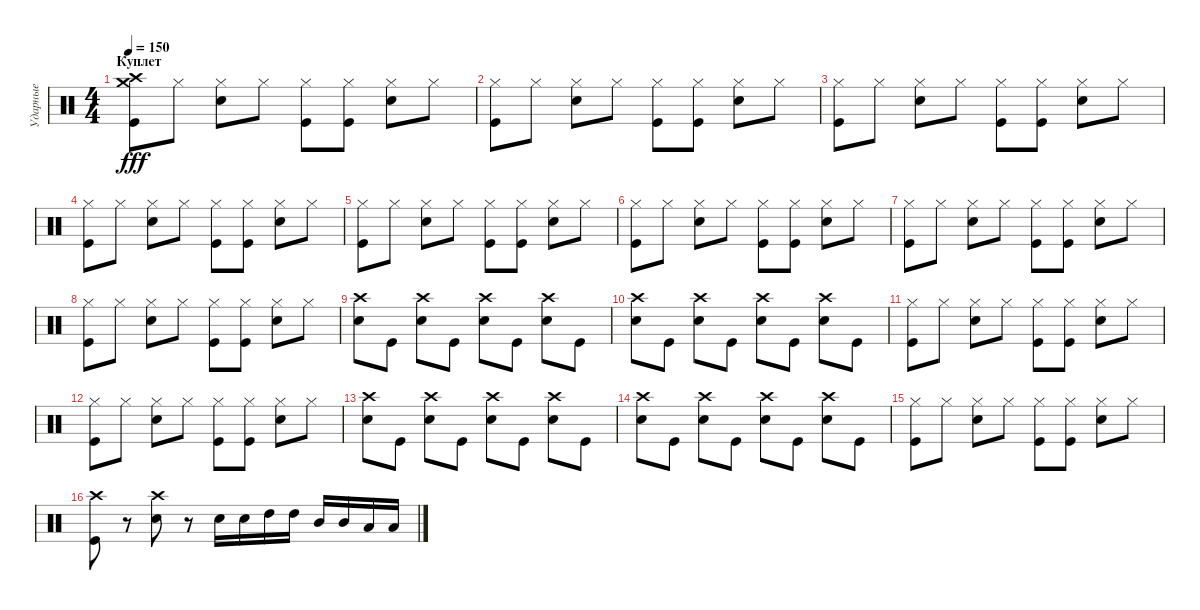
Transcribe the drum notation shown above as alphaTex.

\track ("Ударные" "Ударные") {instrument percussion}
\staff {score}
\articulation defaults
\ts (4 4)
\section ("" "Куплет")
\tempo 150
\clef neutral
\ks c
("Crash medium (hit)" "Crash high (hit)" "Kick (hit)").8{dy fff} "Hi-Hat (closed)".8 ("Hi-Hat (closed)" "Electric Snare (hit)").8 "Hi-Hat (closed)".8 ("Hi-Hat (closed)" "Kick (hit)").8 ("Hi-Hat (closed)" "Kick (hit)").8 ("Hi-Hat (closed)" "Electric Snare (hit)").8 "Hi-Hat (closed)".8 |
("Hi-Hat (closed)" "Kick (hit)").8 "Hi-Hat (closed)".8 ("Hi-Hat (closed)" "Electric Snare (hit)").8 "Hi-Hat (closed)".8 ("Hi-Hat (closed)" "Kick (hit)").8 ("Hi-Hat (closed)" "Kick (hit)").8 ("Hi-Hat (closed)" "Electric Snare (hit)").8 "Hi-Hat (closed)".8 |
("Hi-Hat (closed)" "Kick (hit)").8 "Hi-Hat (closed)".8 ("Hi-Hat (closed)" "Electric Snare (hit)").8 "Hi-Hat (closed)".8 ("Hi-Hat (closed)" "Kick (hit)").8 ("Hi-Hat (closed)" "Kick (hit)").8 ("Hi-Hat (closed)" "Electric Snare (hit)").8 "Hi-Hat (closed)".8 |
("Hi-Hat (closed)" "Kick (hit)").8 "Hi-Hat (closed)".8 ("Hi-Hat (closed)" "Electric Snare (hit)").8 "Hi-Hat (closed)".8 ("Hi-Hat (closed)" "Kick (hit)").8 ("Hi-Hat (closed)" "Kick (hit)").8 ("Hi-Hat (closed)" "Electric Snare (hit)").8 "Hi-Hat (closed)".8 |
("Hi-Hat (closed)" "Kick (hit)").8 "Hi-Hat (closed)".8 ("Hi-Hat (closed)" "Electric Snare (hit)").8 "Hi-Hat (closed)".8 ("Hi-Hat (closed)" "Kick (hit)").8 ("Hi-Hat (closed)" "Kick (hit)").8 ("Hi-Hat (closed)" "Electric Snare (hit)").8 "Hi-Hat (closed)".8 |
("Hi-Hat (closed)" "Kick (hit)").8 "Hi-Hat (closed)".8 ("Hi-Hat (closed)" "Electric Snare (hit)").8 "Hi-Hat (closed)".8 ("Hi-Hat (closed)" "Kick (hit)").8 ("Hi-Hat (closed)" "Kick (hit)").8 ("Hi-Hat (closed)" "Electric Snare (hit)").8 "Hi-Hat (closed)".8 |
("Hi-Hat (closed)" "Kick (hit)").8 "Hi-Hat (closed)".8 ("Hi-Hat (closed)" "Electric Snare (hit)").8 "Hi-Hat (closed)".8 ("Hi-Hat (closed)" "Kick (hit)").8 ("Hi-Hat (closed)" "Kick (hit)").8 ("Hi-Hat (closed)" "Electric Snare (hit)").8 "Hi-Hat (closed)".8 |
("Hi-Hat (closed)" "Kick (hit)").8 "Hi-Hat (closed)".8 ("Hi-Hat (closed)" "Electric Snare (hit)").8 "Hi-Hat (closed)".8 ("Hi-Hat (closed)" "Kick (hit)").8 ("Hi-Hat (closed)" "Kick (hit)").8 ("Hi-Hat (closed)" "Electric Snare (hit)").8 "Hi-Hat (closed)".8 |
("Crash high (hit)" "Electric Snare (hit)").8 "Kick (hit)".8 ("Crash high (hit)" "Electric Snare (hit)").8 "Kick (hit)".8 ("Crash high (hit)" "Electric Snare (hit)").8 "Kick (hit)".8 ("Crash high (hit)" "Electric Snare (hit)").8 "Kick (hit)".8 |
("Crash high (hit)" "Electric Snare (hit)").8 "Kick (hit)".8 ("Crash high (hit)" "Electric Snare (hit)").8 "Kick (hit)".8 ("Crash high (hit)" "Electric Snare (hit)").8 "Kick (hit)".8 ("Crash high (hit)" "Electric Snare (hit)").8 "Kick (hit)".8 |
("Hi-Hat (closed)" "Kick (hit)").8 "Hi-Hat (closed)".8 ("Hi-Hat (closed)" "Electric Snare (hit)").8 "Hi-Hat (closed)".8 ("Hi-Hat (closed)" "Kick (hit)").8 ("Hi-Hat (closed)" "Kick (hit)").8 ("Hi-Hat (closed)" "Electric Snare (hit)").8 "Hi-Hat (closed)".8 |
("Hi-Hat (closed)" "Kick (hit)").8 "Hi-Hat (closed)".8 ("Hi-Hat (closed)" "Electric Snare (hit)").8 "Hi-Hat (closed)".8 ("Hi-Hat (closed)" "Kick (hit)").8 ("Hi-Hat (closed)" "Kick (hit)").8 ("Hi-Hat (closed)" "Electric Snare (hit)").8 "Hi-Hat (closed)".8 |
("Crash high (hit)" "Electric Snare (hit)").8 "Kick (hit)".8 ("Crash high (hit)" "Electric Snare (hit)").8 "Kick (hit)".8 ("Crash high (hit)" "Electric Snare (hit)").8 "Kick (hit)".8 ("Crash high (hit)" "Electric Snare (hit)").8 "Kick (hit)".8 |
("Crash high (hit)" "Electric Snare (hit)").8 "Kick (hit)".8 ("Crash high (hit)" "Electric Snare (hit)").8 "Kick (hit)".8 ("Crash high (hit)" "Electric Snare (hit)").8 "Kick (hit)".8 ("Crash high (hit)" "Electric Snare (hit)").8 "Kick (hit)".8 |
("Hi-Hat (closed)" "Kick (hit)").8 "Hi-Hat (closed)".8 ("Hi-Hat (closed)" "Electric Snare (hit)").8 "Hi-Hat (closed)".8 ("Hi-Hat (closed)" "Kick (hit)").8 ("Hi-Hat (closed)" "Kick (hit)").8 ("Hi-Hat (closed)" "Electric Snare (hit)").8 "Hi-Hat (closed)".8 |
("Crash high (hit)" "Kick (hit)").8 r.8 ("Crash high (hit)" "Electric Snare (hit)").8 r.8 "Electric Snare (hit)".16 "Electric Snare (hit)".16 "High Tom (hit)".16 "High Tom (hit)".16 "Mid Tom (hit)".16 "Mid Tom (hit)".16 "Low Tom (hit)".16 "Low Tom (hit)".16
